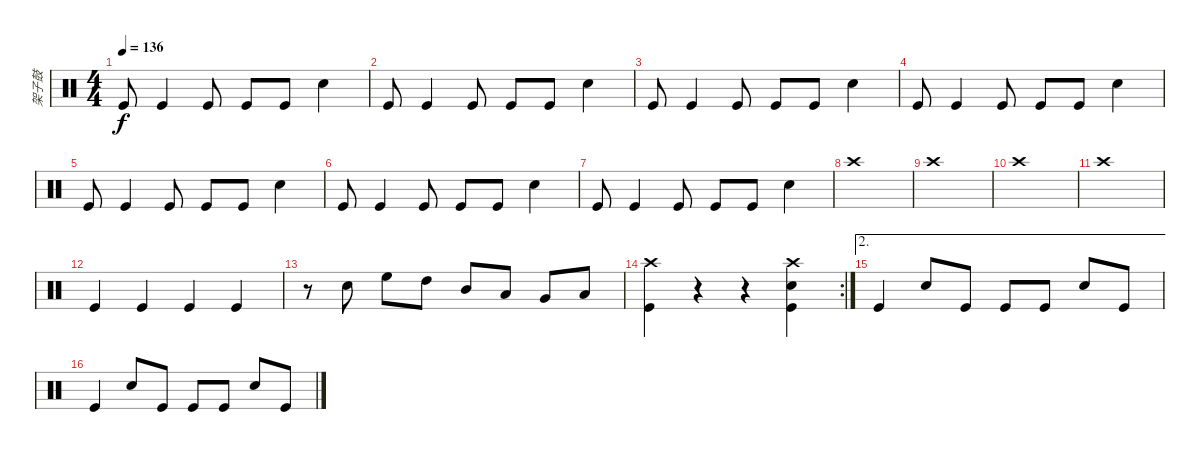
\track ("架子鼓" "架子鼓") {instrument percussion}
\staff {score}
\articulation defaults
\ts (4 4)
\tempo 136
\clef neutral
\ks c "Kick (hit)".8{dy f} "Kick (hit)".4 "Kick (hit)".8 "Kick (hit)".8 "Kick (hit)".8 "Snare (hit) 2".4
|
"Kick (hit)".8 "Kick (hit)".4 "Kick (hit)".8 "Kick (hit)".8 "Kick (hit)".8 "Snare (hit) 2".4 |
"Kick (hit)".8 "Kick (hit)".4 "Kick (hit)".8 "Kick (hit)".8 "Kick (hit)".8 "Snare (hit) 2".4 |
"Kick (hit)".8 "Kick (hit)".4 "Kick (hit)".8 "Kick (hit)".8 "Kick (hit)".8 "Snare (hit) 2".4 |
"Kick (hit)".8 "Kick (hit)".4 "Kick (hit)".8 "Kick (hit)".8 "Kick (hit)".8 "Snare (hit) 2".4 |
"Kick (hit)".8 "Kick (hit)".4 "Kick (hit)".8 "Kick (hit)".8 "Kick (hit)".8 "Snare (hit) 2".4 |
"Kick (hit)".8 "Kick (hit)".4 "Kick (hit)".8 "Kick (hit)".8 "Kick (hit)".8 "Snare (hit) 2".4 |
"Crash high (hit)".1 |
"Crash high (hit)".1 |
"Crash high (hit)".1 |
"Crash high (hit)".1 |
"Kick (hit)".4 "Kick (hit)".4 "Kick (hit)".4 "Kick (hit)".4 |
r.8 "Snare (hit) 2".8 "High Floor Tom (hit)".8 "High Tom (hit)".8 "Mid Tom (hit)".8 "Low Tom (hit)".8 "Very Low Tom (hit)".8 "Low Floor Tom (hit)".8 |
\rc 2
("Crash high (hit)" "Kick (hit)").4 r.4 r.4 ("Crash high (hit)" "Snare (hit) 2" "Kick (hit)").4 |
\ae 2 "Kick (hit)".4 "Snare (hit) 2".8 "Kick (hit)".8 "Kick (hit)".8 "Kick (hit)".8 "Snare (hit) 2".8 "Kick (hit)".8
|
"Kick (hit)".4 "Snare (hit) 2".8 "Kick (hit)".8 "Kick (hit)".8 "Kick (hit)".8 "Snare (hit) 2".8 "Kick (hit)".8
